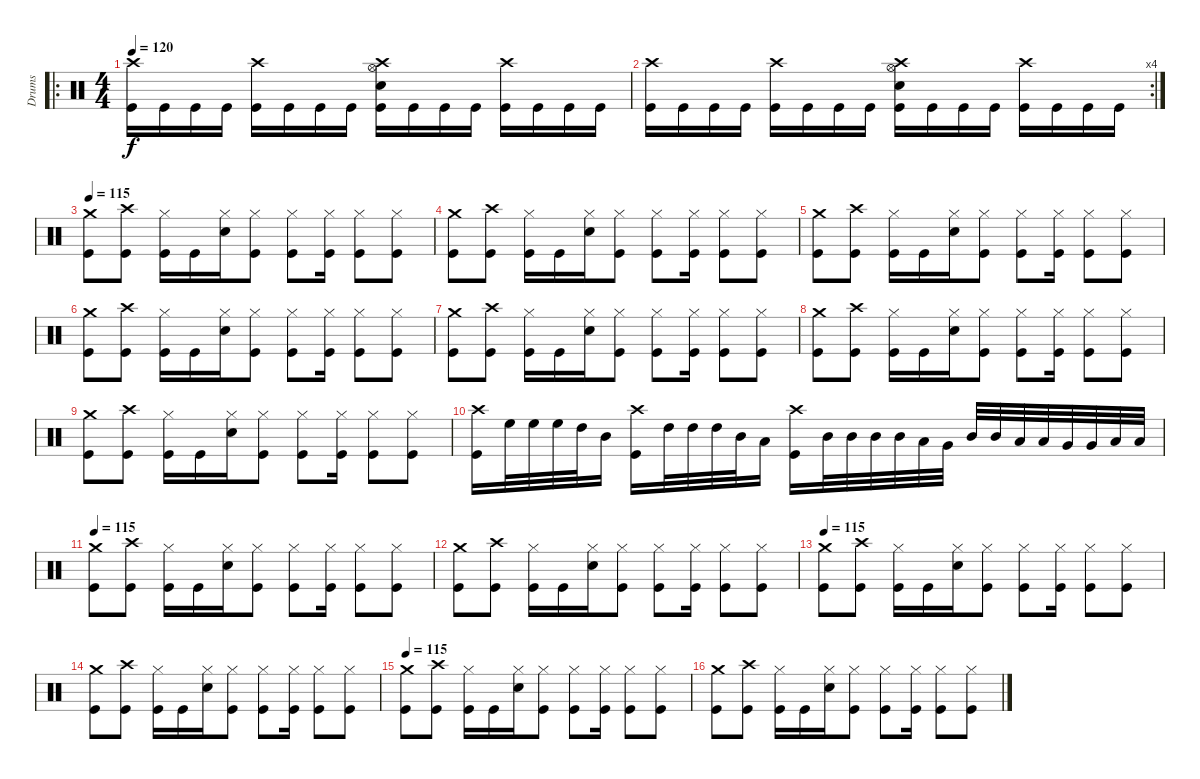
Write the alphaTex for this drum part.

\track ("Drums" "Drums") {instrument percussion}
\staff {score}
\articulation defaults
\ro
\ts (4 4)
\tempo 120
\clef neutral
\ks c
("Crash high (hit)" "Kick (hit)").16{dy f} "Kick (hit)".16 "Kick (hit)".16 "Kick (hit)".16 ("Crash high (hit)" "Kick (hit)").16 "Kick (hit)".16 "Kick (hit)".16 "Kick (hit)".16 ("Crash high (hit)" "Hi-Hat (open)" "Snare (hit) 2" "Kick (hit)").16 "Kick (hit)".16 "Kick (hit)".16 "Kick (hit)".16 ("Crash high (hit)" "Kick (hit)").16 "Kick (hit)".16 "Kick (hit)".16 "Kick (hit)".16 |
\rc 4
("Crash high (hit)" "Kick (hit)").16 "Kick (hit)".16 "Kick (hit)".16 "Kick (hit)".16 ("Crash high (hit)" "Kick (hit)").16 "Kick (hit)".16 "Kick (hit)".16 "Kick (hit)".16 ("Crash high (hit)" "Hi-Hat (open)" "Snare (hit) 2" "Kick (hit)").16 "Kick (hit)".16 "Kick (hit)".16 "Kick (hit)".16 ("Crash high (hit)" "Kick (hit)").16 "Kick (hit)".16 "Kick (hit)".16 "Kick (hit)".16 |
\tempo 115
("Crash medium (hit)" "Kick (hit)").8 ("Crash high (hit)" "Kick (hit)").8 ("Hi-Hat (closed)" "Kick (hit)").16 "Kick (hit)".16 ("Hi-Hat (closed)" "Snare (hit) 2").16 ("Hi-Hat (closed)" "Kick (hit)").8 ("Hi-Hat (closed)" "Kick (hit)").8 ("Hi-Hat (closed)" "Kick (hit)").16 ("Hi-Hat (closed)" "Kick (hit)").8 ("Hi-Hat (closed)" "Kick (hit)").8 |
("Crash medium (hit)" "Kick (hit)").8 ("Crash high (hit)" "Kick (hit)").8 ("Hi-Hat (closed)" "Kick (hit)").16 "Kick (hit)".16 ("Hi-Hat (closed)" "Snare (hit) 2").16 ("Hi-Hat (closed)" "Kick (hit)").8 ("Hi-Hat (closed)" "Kick (hit)").8 ("Hi-Hat (closed)" "Kick (hit)").16 ("Hi-Hat (closed)" "Kick (hit)").8 ("Hi-Hat (closed)" "Kick (hit)").8 |
("Crash medium (hit)" "Kick (hit)").8 ("Crash high (hit)" "Kick (hit)").8 ("Hi-Hat (closed)" "Kick (hit)").16 "Kick (hit)".16 ("Hi-Hat (closed)" "Snare (hit) 2").16 ("Hi-Hat (closed)" "Kick (hit)").8 ("Hi-Hat (closed)" "Kick (hit)").8 ("Hi-Hat (closed)" "Kick (hit)").16 ("Hi-Hat (closed)" "Kick (hit)").8 ("Hi-Hat (closed)" "Kick (hit)").8 |
("Crash medium (hit)" "Kick (hit)").8 ("Crash high (hit)" "Kick (hit)").8 ("Hi-Hat (closed)" "Kick (hit)").16 "Kick (hit)".16 ("Hi-Hat (closed)" "Snare (hit) 2").16 ("Hi-Hat (closed)" "Kick (hit)").8 ("Hi-Hat (closed)" "Kick (hit)").8 ("Hi-Hat (closed)" "Kick (hit)").16 ("Hi-Hat (closed)" "Kick (hit)").8 ("Hi-Hat (closed)" "Kick (hit)").8 |
("Crash medium (hit)" "Kick (hit)").8 ("Crash high (hit)" "Kick (hit)").8 ("Hi-Hat (closed)" "Kick (hit)").16 "Kick (hit)".16 ("Hi-Hat (closed)" "Snare (hit) 2").16 ("Hi-Hat (closed)" "Kick (hit)").8 ("Hi-Hat (closed)" "Kick (hit)").8 ("Hi-Hat (closed)" "Kick (hit)").16 ("Hi-Hat (closed)" "Kick (hit)").8 ("Hi-Hat (closed)" "Kick (hit)").8 |
("Crash medium (hit)" "Kick (hit)").8 ("Crash high (hit)" "Kick (hit)").8 ("Hi-Hat (closed)" "Kick (hit)").16 "Kick (hit)".16 ("Hi-Hat (closed)" "Snare (hit) 2").16 ("Hi-Hat (closed)" "Kick (hit)").8 ("Hi-Hat (closed)" "Kick (hit)").8 ("Hi-Hat (closed)" "Kick (hit)").16 ("Hi-Hat (closed)" "Kick (hit)").8 ("Hi-Hat (closed)" "Kick (hit)").8 |
("Crash medium (hit)" "Kick (hit)").8 ("Crash high (hit)" "Kick (hit)").8 ("Hi-Hat (closed)" "Kick (hit)").16 "Kick (hit)".16 ("Hi-Hat (closed)" "Snare (hit) 2").16 ("Hi-Hat (closed)" "Kick (hit)").8 ("Hi-Hat (closed)" "Kick (hit)").8 ("Hi-Hat (closed)" "Kick (hit)").16 ("Hi-Hat (closed)" "Kick (hit)").8 ("Hi-Hat (closed)" "Kick (hit)").8 |
("Crash high (hit)" "Kick (hit)").16 "High Floor Tom (hit)".32 "High Floor Tom (hit)".32 "High Floor Tom (hit)".32 "High Tom (hit)".32 "Mid Tom (hit)".16 ("Crash high (hit)" "Kick (hit)").16 "High Tom (hit)".32 "High Tom (hit)".32 "High Tom (hit)".32 "Mid Tom (hit)".32 "Low Tom (hit)".16 ("Crash high (hit)" "Kick (hit)").16 "Mid Tom (hit)".32 "Mid Tom (hit)".32 "Mid Tom (hit)".32 "Mid Tom (hit)".32 "Low Tom (hit)".32 "Very Low Tom (hit)".32 "Mid Tom (hit)".32 "Mid Tom (hit)".32 "Low Tom (hit)".32 "Low Tom (hit)".32 "Very Low Tom (hit)".32 "Very Low Tom (hit)".32 "Low Floor Tom (hit)".32 "Low Floor Tom (hit)".32 |
\tempo 115
("Crash medium (hit)" "Kick (hit)").8 ("Crash high (hit)" "Kick (hit)").8 ("Hi-Hat (closed)" "Kick (hit)").16 "Kick (hit)".16 ("Hi-Hat (closed)" "Snare (hit) 2").16 ("Hi-Hat (closed)" "Kick (hit)").8 ("Hi-Hat (closed)" "Kick (hit)").8 ("Hi-Hat (closed)" "Kick (hit)").16 ("Hi-Hat (closed)" "Kick (hit)").8 ("Hi-Hat (closed)" "Kick (hit)").8 |
("Crash medium (hit)" "Kick (hit)").8 ("Crash high (hit)" "Kick (hit)").8 ("Hi-Hat (closed)" "Kick (hit)").16 "Kick (hit)".16 ("Hi-Hat (closed)" "Snare (hit) 2").16 ("Hi-Hat (closed)" "Kick (hit)").8 ("Hi-Hat (closed)" "Kick (hit)").8 ("Hi-Hat (closed)" "Kick (hit)").16 ("Hi-Hat (closed)" "Kick (hit)").8 ("Hi-Hat (closed)" "Kick (hit)").8 |
\tempo 115
("Crash medium (hit)" "Kick (hit)").8 ("Crash high (hit)" "Kick (hit)").8 ("Hi-Hat (closed)" "Kick (hit)").16 "Kick (hit)".16 ("Hi-Hat (closed)" "Snare (hit) 2").16 ("Hi-Hat (closed)" "Kick (hit)").8 ("Hi-Hat (closed)" "Kick (hit)").8 ("Hi-Hat (closed)" "Kick (hit)").16 ("Hi-Hat (closed)" "Kick (hit)").8 ("Hi-Hat (closed)" "Kick (hit)").8 |
("Crash medium (hit)" "Kick (hit)").8 ("Crash high (hit)" "Kick (hit)").8 ("Hi-Hat (closed)" "Kick (hit)").16 "Kick (hit)".16 ("Hi-Hat (closed)" "Snare (hit) 2").16 ("Hi-Hat (closed)" "Kick (hit)").8 ("Hi-Hat (closed)" "Kick (hit)").8 ("Hi-Hat (closed)" "Kick (hit)").16 ("Hi-Hat (closed)" "Kick (hit)").8 ("Hi-Hat (closed)" "Kick (hit)").8 |
\tempo 115
("Crash medium (hit)" "Kick (hit)").8 ("Crash high (hit)" "Kick (hit)").8 ("Hi-Hat (closed)" "Kick (hit)").16 "Kick (hit)".16 ("Hi-Hat (closed)" "Snare (hit) 2").16 ("Hi-Hat (closed)" "Kick (hit)").8 ("Hi-Hat (closed)" "Kick (hit)").8 ("Hi-Hat (closed)" "Kick (hit)").16 ("Hi-Hat (closed)" "Kick (hit)").8 ("Hi-Hat (closed)" "Kick (hit)").8 |
("Crash medium (hit)" "Kick (hit)").8 ("Crash high (hit)" "Kick (hit)").8 ("Hi-Hat (closed)" "Kick (hit)").16 "Kick (hit)".16 ("Hi-Hat (closed)" "Snare (hit) 2").16 ("Hi-Hat (closed)" "Kick (hit)").8 ("Hi-Hat (closed)" "Kick (hit)").8 ("Hi-Hat (closed)" "Kick (hit)").16 ("Hi-Hat (closed)" "Kick (hit)").8 ("Hi-Hat (closed)" "Kick (hit)").8
